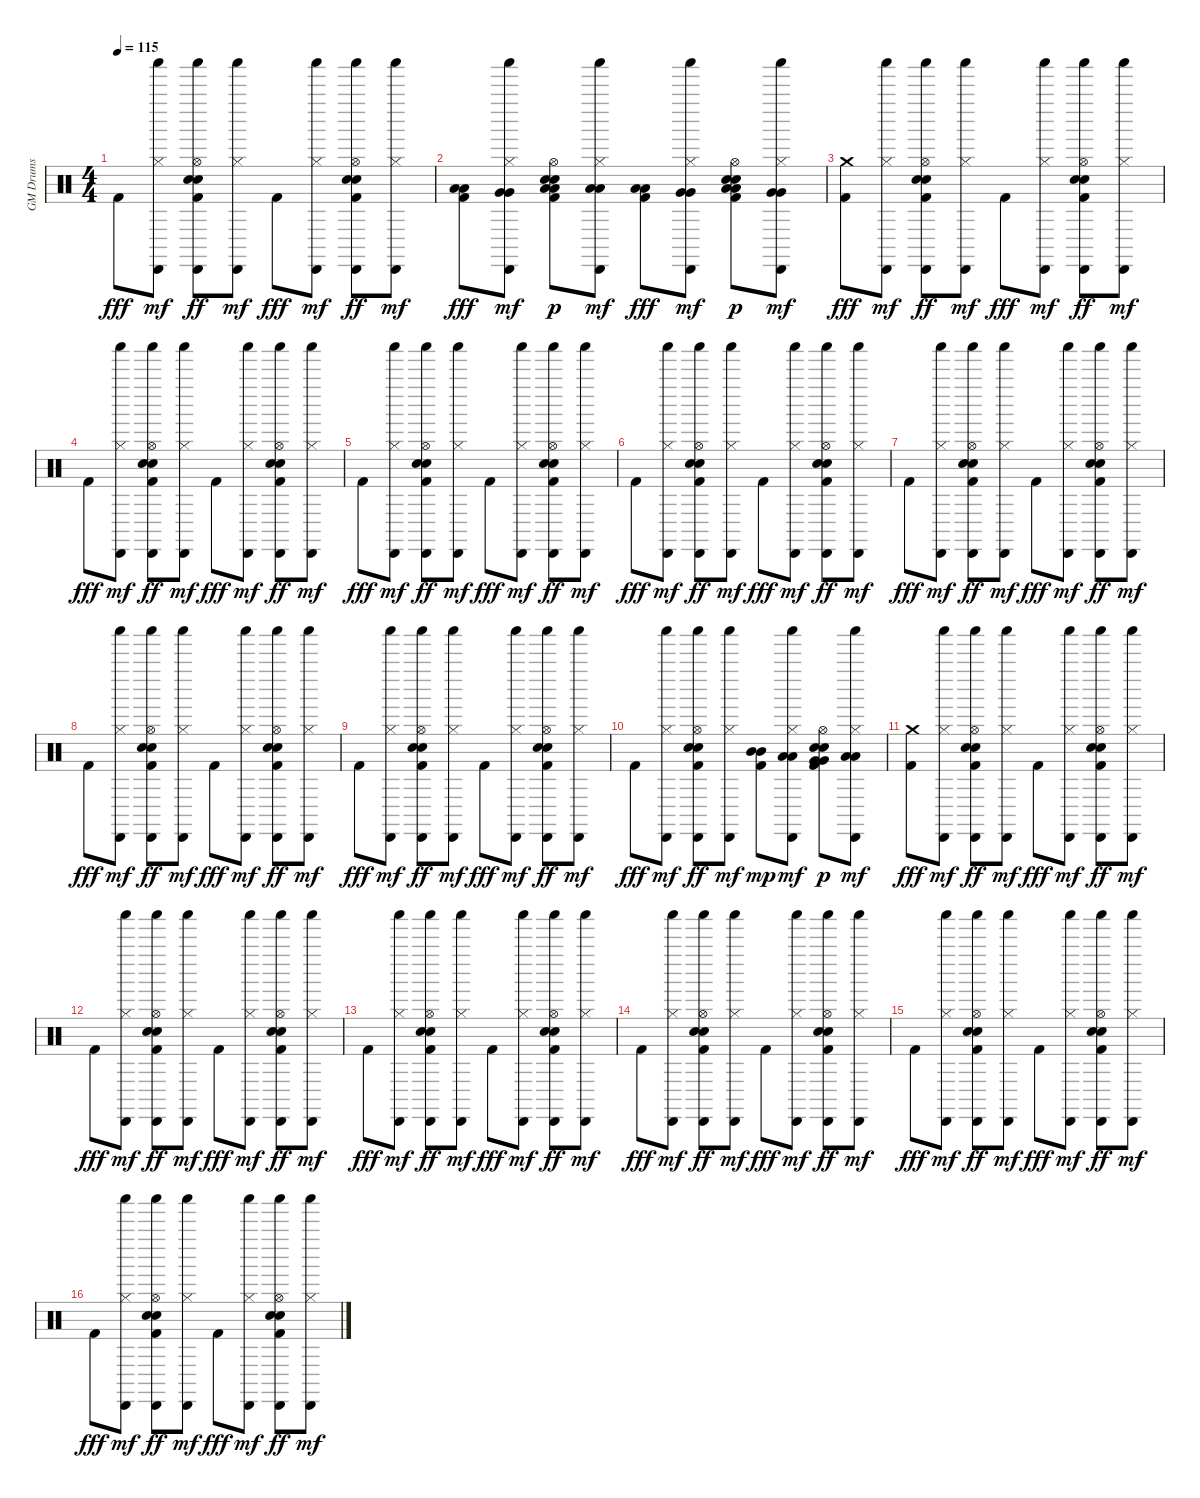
\track ("GM Drums" "GM Drums") {instrument percussion}
\staff {score}
\articulation defaults
\ts (4 4)
\tempo 115
\clef neutral
\ks c "Kick (hit) 2".8{dy fff}
("Hi-Hat (closed)" "Cabasa (hit)" "Shaker (hit)").8{dy mf} ("Kick (hit) 2" "Snare (hit) 2" "Hand Clap (hit)" "Hi-Hat (open)" "Cabasa (hit)" "Shaker (hit)").8{dy ff} ("Hi-Hat (closed)" "Cabasa (hit)" "Shaker (hit)").8{dy mf} "Kick (hit) 2".8{dy fff} ("Hi-Hat (closed)" "Cabasa (hit)" "Shaker (hit)").8{dy mf} ("Kick (hit) 2" "Snare (hit) 2" "Hand Clap (hit)" "Hi-Hat (open)" "Cabasa (hit)" "Shaker (hit)").8{dy ff} ("Hi-Hat (closed)" "Cabasa (hit)" "Shaker (hit)").8{dy mf} |
("Kick (hit) 2" "Low Tom (hit)" "Low Tom (hit)").8{dy fff} ("Hi-Hat (closed)" "Very Low Tom (hit)" "Very Low Tom (hit)" "Cabasa (hit)" "Shaker (hit)").8{dy mf} ("Kick (hit) 2" "Snare (hit) 2" "Hand Clap (hit)" "Low Floor Tom (hit)" "Low Floor Tom (hit)" "Hi-Hat (open)").8{dy p} ("Hi-Hat (closed)" "Low Tom (hit)" "Low Tom (hit)" "Cabasa (hit)" "Shaker (hit)").8{dy mf} ("Kick (hit) 2" "Low Tom (hit)" "Low Tom (hit)").8{dy fff} ("Hi-Hat (closed)" "Very Low Tom (hit)" "Very Low Tom (hit)" "Cabasa (hit)" "Shaker (hit)").8{dy mf} ("Kick (hit) 2" "Snare (hit) 2" "Hand Clap (hit)" "Low Floor Tom (hit)" "Low Floor Tom (hit)" "Hi-Hat (open)").8{dy p} ("Hi-Hat (closed)" "Very Low Tom (hit)" "Very Low Tom (hit)" "Cabasa (hit)" "Shaker (hit)").8{dy mf} |
("Kick (hit) 2" "Crash medium (hit)").8{dy fff} ("Hi-Hat (closed)" "Cabasa (hit)" "Shaker (hit)").8{dy mf} ("Kick (hit) 2" "Snare (hit) 2" "Hand Clap (hit)" "Hi-Hat (open)" "Cabasa (hit)" "Shaker (hit)").8{dy ff} ("Hi-Hat (closed)" "Cabasa (hit)" "Shaker (hit)").8{dy mf} "Kick (hit) 2".8{dy fff} ("Hi-Hat (closed)" "Cabasa (hit)" "Shaker (hit)").8{dy mf} ("Kick (hit) 2" "Snare (hit) 2" "Hand Clap (hit)" "Hi-Hat (open)" "Cabasa (hit)" "Shaker (hit)").8{dy ff} ("Hi-Hat (closed)" "Cabasa (hit)" "Shaker (hit)").8{dy mf} |
"Kick (hit) 2".8{dy fff} ("Hi-Hat (closed)" "Cabasa (hit)" "Shaker (hit)").8{dy mf} ("Kick (hit) 2" "Snare (hit) 2" "Hand Clap (hit)" "Hi-Hat (open)" "Cabasa (hit)" "Shaker (hit)").8{dy ff} ("Hi-Hat (closed)" "Cabasa (hit)" "Shaker (hit)").8{dy mf} "Kick (hit) 2".8{dy fff} ("Hi-Hat (closed)" "Cabasa (hit)" "Shaker (hit)").8{dy mf} ("Kick (hit) 2" "Snare (hit) 2" "Hand Clap (hit)" "Hi-Hat (open)" "Cabasa (hit)" "Shaker (hit)").8{dy ff} ("Hi-Hat (closed)" "Cabasa (hit)" "Shaker (hit)").8{dy mf} |
"Kick (hit) 2".8{dy fff} ("Hi-Hat (closed)" "Cabasa (hit)" "Shaker (hit)").8{dy mf} ("Kick (hit) 2" "Snare (hit) 2" "Hand Clap (hit)" "Hi-Hat (open)" "Cabasa (hit)" "Shaker (hit)").8{dy ff} ("Hi-Hat (closed)" "Cabasa (hit)" "Shaker (hit)").8{dy mf} "Kick (hit) 2".8{dy fff} ("Hi-Hat (closed)" "Cabasa (hit)" "Shaker (hit)").8{dy mf} ("Kick (hit) 2" "Snare (hit) 2" "Hand Clap (hit)" "Hi-Hat (open)" "Cabasa (hit)" "Shaker (hit)").8{dy ff} ("Hi-Hat (closed)" "Cabasa (hit)" "Shaker (hit)").8{dy mf} |
"Kick (hit) 2".8{dy fff} ("Hi-Hat (closed)" "Cabasa (hit)" "Shaker (hit)").8{dy mf} ("Kick (hit) 2" "Snare (hit) 2" "Hand Clap (hit)" "Hi-Hat (open)" "Cabasa (hit)" "Shaker (hit)").8{dy ff} ("Hi-Hat (closed)" "Cabasa (hit)" "Shaker (hit)").8{dy mf} "Kick (hit) 2".8{dy fff} ("Hi-Hat (closed)" "Cabasa (hit)" "Shaker (hit)").8{dy mf} ("Kick (hit) 2" "Snare (hit) 2" "Hand Clap (hit)" "Hi-Hat (open)" "Cabasa (hit)" "Shaker (hit)").8{dy ff} ("Hi-Hat (closed)" "Cabasa (hit)" "Shaker (hit)").8{dy mf} |
"Kick (hit) 2".8{dy fff} ("Hi-Hat (closed)" "Cabasa (hit)" "Shaker (hit)").8{dy mf} ("Kick (hit) 2" "Snare (hit) 2" "Hand Clap (hit)" "Hi-Hat (open)" "Cabasa (hit)" "Shaker (hit)").8{dy ff} ("Hi-Hat (closed)" "Cabasa (hit)" "Shaker (hit)").8{dy mf} "Kick (hit) 2".8{dy fff} ("Hi-Hat (closed)" "Cabasa (hit)" "Shaker (hit)").8{dy mf} ("Kick (hit) 2" "Snare (hit) 2" "Hand Clap (hit)" "Hi-Hat (open)" "Cabasa (hit)" "Shaker (hit)").8{dy ff} ("Hi-Hat (closed)" "Cabasa (hit)" "Shaker (hit)").8{dy mf} |
"Kick (hit) 2".8{dy fff} ("Hi-Hat (closed)" "Cabasa (hit)" "Shaker (hit)").8{dy mf} ("Kick (hit) 2" "Snare (hit) 2" "Hand Clap (hit)" "Hi-Hat (open)" "Cabasa (hit)" "Shaker (hit)").8{dy ff} ("Hi-Hat (closed)" "Cabasa (hit)" "Shaker (hit)").8{dy mf} "Kick (hit) 2".8{dy fff} ("Hi-Hat (closed)" "Cabasa (hit)" "Shaker (hit)").8{dy mf} ("Kick (hit) 2" "Snare (hit) 2" "Hand Clap (hit)" "Hi-Hat (open)" "Cabasa (hit)" "Shaker (hit)").8{dy ff} ("Hi-Hat (closed)" "Cabasa (hit)" "Shaker (hit)").8{dy mf} |
"Kick (hit) 2".8{dy fff} ("Hi-Hat (closed)" "Cabasa (hit)" "Shaker (hit)").8{dy mf} ("Kick (hit) 2" "Snare (hit) 2" "Hand Clap (hit)" "Hi-Hat (open)" "Cabasa (hit)" "Shaker (hit)").8{dy ff} ("Hi-Hat (closed)" "Cabasa (hit)" "Shaker (hit)").8{dy mf} "Kick (hit) 2".8{dy fff} ("Hi-Hat (closed)" "Cabasa (hit)" "Shaker (hit)").8{dy mf} ("Kick (hit) 2" "Snare (hit) 2" "Hand Clap (hit)" "Hi-Hat (open)" "Cabasa (hit)" "Shaker (hit)").8{dy ff} ("Hi-Hat (closed)" "Cabasa (hit)" "Shaker (hit)").8{dy mf} |
"Kick (hit) 2".8{dy fff} ("Hi-Hat (closed)" "Cabasa (hit)" "Shaker (hit)").8{dy mf} ("Kick (hit) 2" "Snare (hit) 2" "Hand Clap (hit)" "Hi-Hat (open)" "Cabasa (hit)" "Shaker (hit)").8{dy ff} ("Hi-Hat (closed)" "Cabasa (hit)" "Shaker (hit)").8{dy mf} ("Kick (hit) 2" "Mid Tom (hit)" "Mid Tom (hit)").8{dy mp} ("Hi-Hat (closed)" "Low Tom (hit)" "Low Tom (hit)" "Cabasa (hit)" "Shaker (hit)").8{dy mf} ("Kick (hit) 2" "Snare (hit) 2" "Hand Clap (hit)" "Very Low Tom (hit)" "Very Low Tom (hit)" "Hi-Hat (open)").8{dy p} ("Hi-Hat (closed)" "Low Floor Tom (hit)" "Low Floor Tom (hit)" "Cabasa (hit)" "Shaker (hit)").8{dy mf} |
("Kick (hit) 2" "Crash medium (hit)").8{dy fff} ("Hi-Hat (closed)" "Cabasa (hit)" "Shaker (hit)").8{dy mf} ("Kick (hit) 2" "Snare (hit) 2" "Hand Clap (hit)" "Hi-Hat (open)" "Cabasa (hit)" "Shaker (hit)").8{dy ff} ("Hi-Hat (closed)" "Cabasa (hit)" "Shaker (hit)").8{dy mf} "Kick (hit) 2".8{dy fff} ("Hi-Hat (closed)" "Cabasa (hit)" "Shaker (hit)").8{dy mf} ("Kick (hit) 2" "Snare (hit) 2" "Hand Clap (hit)" "Hi-Hat (open)" "Cabasa (hit)" "Shaker (hit)").8{dy ff} ("Hi-Hat (closed)" "Cabasa (hit)" "Shaker (hit)").8{dy mf} |
"Kick (hit) 2".8{dy fff} ("Hi-Hat (closed)" "Cabasa (hit)" "Shaker (hit)").8{dy mf} ("Kick (hit) 2" "Snare (hit) 2" "Hand Clap (hit)" "Hi-Hat (open)" "Cabasa (hit)" "Shaker (hit)").8{dy ff} ("Hi-Hat (closed)" "Cabasa (hit)" "Shaker (hit)").8{dy mf} "Kick (hit) 2".8{dy fff} ("Hi-Hat (closed)" "Cabasa (hit)" "Shaker (hit)").8{dy mf} ("Kick (hit) 2" "Snare (hit) 2" "Hand Clap (hit)" "Hi-Hat (open)" "Cabasa (hit)" "Shaker (hit)").8{dy ff} ("Hi-Hat (closed)" "Cabasa (hit)" "Shaker (hit)").8{dy mf} |
"Kick (hit) 2".8{dy fff} ("Hi-Hat (closed)" "Cabasa (hit)" "Shaker (hit)").8{dy mf} ("Kick (hit) 2" "Snare (hit) 2" "Hand Clap (hit)" "Hi-Hat (open)" "Cabasa (hit)" "Shaker (hit)").8{dy ff} ("Hi-Hat (closed)" "Cabasa (hit)" "Shaker (hit)").8{dy mf} "Kick (hit) 2".8{dy fff} ("Hi-Hat (closed)" "Cabasa (hit)" "Shaker (hit)").8{dy mf} ("Kick (hit) 2" "Snare (hit) 2" "Hand Clap (hit)" "Hi-Hat (open)" "Cabasa (hit)" "Shaker (hit)").8{dy ff} ("Hi-Hat (closed)" "Cabasa (hit)" "Shaker (hit)").8{dy mf} |
"Kick (hit) 2".8{dy fff} ("Hi-Hat (closed)" "Cabasa (hit)" "Shaker (hit)").8{dy mf} ("Kick (hit) 2" "Snare (hit) 2" "Hand Clap (hit)" "Hi-Hat (open)" "Cabasa (hit)" "Shaker (hit)").8{dy ff} ("Hi-Hat (closed)" "Cabasa (hit)" "Shaker (hit)").8{dy mf} "Kick (hit) 2".8{dy fff} ("Hi-Hat (closed)" "Cabasa (hit)" "Shaker (hit)").8{dy mf} ("Kick (hit) 2" "Snare (hit) 2" "Hand Clap (hit)" "Hi-Hat (open)" "Cabasa (hit)" "Shaker (hit)").8{dy ff} ("Hi-Hat (closed)" "Cabasa (hit)" "Shaker (hit)").8{dy mf} |
"Kick (hit) 2".8{dy fff} ("Hi-Hat (closed)" "Cabasa (hit)" "Shaker (hit)").8{dy mf} ("Kick (hit) 2" "Snare (hit) 2" "Hand Clap (hit)" "Hi-Hat (open)" "Cabasa (hit)" "Shaker (hit)").8{dy ff} ("Hi-Hat (closed)" "Cabasa (hit)" "Shaker (hit)").8{dy mf} "Kick (hit) 2".8{dy fff} ("Hi-Hat (closed)" "Cabasa (hit)" "Shaker (hit)").8{dy mf} ("Kick (hit) 2" "Snare (hit) 2" "Hand Clap (hit)" "Hi-Hat (open)" "Cabasa (hit)" "Shaker (hit)").8{dy ff} ("Hi-Hat (closed)" "Cabasa (hit)" "Shaker (hit)").8{dy mf} |
"Kick (hit) 2".8{dy fff} ("Hi-Hat (closed)" "Cabasa (hit)" "Shaker (hit)").8{dy mf} ("Kick (hit) 2" "Snare (hit) 2" "Hand Clap (hit)" "Hi-Hat (open)" "Cabasa (hit)" "Shaker (hit)").8{dy ff} ("Hi-Hat (closed)" "Cabasa (hit)" "Shaker (hit)").8{dy mf} "Kick (hit) 2".8{dy fff} ("Hi-Hat (closed)" "Cabasa (hit)" "Shaker (hit)").8{dy mf} ("Kick (hit) 2" "Snare (hit) 2" "Hand Clap (hit)" "Hi-Hat (open)" "Cabasa (hit)" "Shaker (hit)").8{dy ff} ("Hi-Hat (closed)" "Cabasa (hit)" "Shaker (hit)").8{dy mf}
